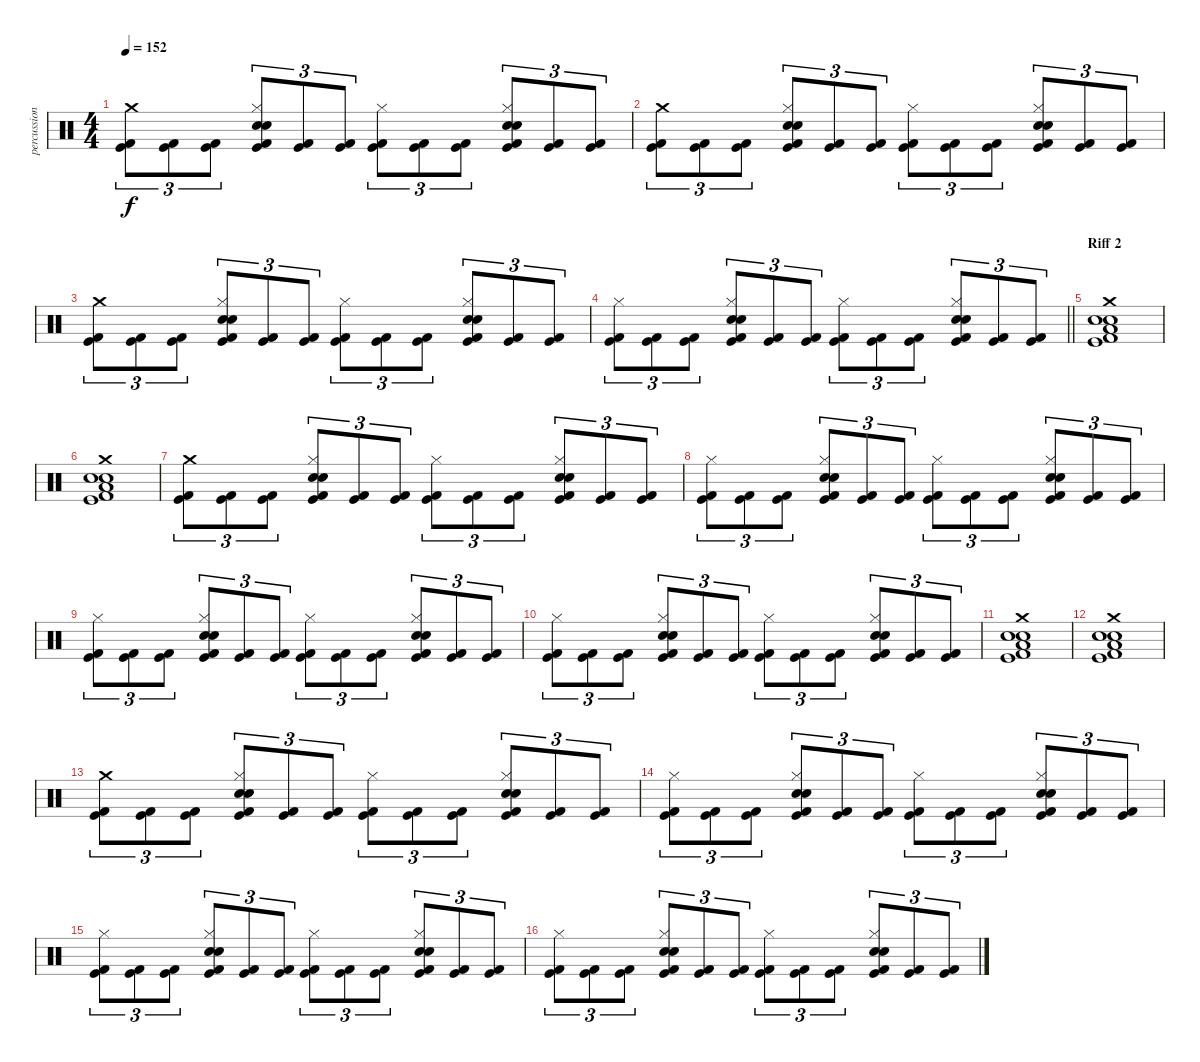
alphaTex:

\track ("percussion" "percussion") {instrument percussion}
\staff {score}
\articulation defaults
\ts (4 4)
\tempo 152
\clef neutral
\ks c
("Crash medium (hit)" "Kick (hit)" "Kick (hit) 2").8{tu (3 2) dy f} ("Kick (hit)" "Kick (hit) 2").8{tu (3 2)} ("Kick (hit)" "Kick (hit) 2").8{tu (3 2)} ("Hi-Hat (closed)" "Electric Snare (hit)" "Snare (hit) 2" "Kick (hit)" "Kick (hit) 2").8{tu (3 2)} ("Kick (hit)" "Kick (hit) 2").8{tu (3 2)} ("Kick (hit)" "Kick (hit) 2").8{tu (3 2)} ("Hi-Hat (closed)" "Kick (hit)" "Kick (hit) 2").8{tu (3 2)} ("Kick (hit)" "Kick (hit) 2").8{tu (3 2)} ("Kick (hit)" "Kick (hit) 2").8{tu (3 2)} ("Hi-Hat (closed)" "Electric Snare (hit)" "Snare (hit) 2" "Kick (hit)" "Kick (hit) 2").8{tu (3 2)} ("Kick (hit)" "Kick (hit) 2").8{tu (3 2)} ("Kick (hit)" "Kick (hit) 2").8{tu (3 2)} |
("Crash medium (hit)" "Kick (hit)" "Kick (hit) 2").8{tu (3 2)} ("Kick (hit)" "Kick (hit) 2").8{tu (3 2)} ("Kick (hit)" "Kick (hit) 2").8{tu (3 2)} ("Hi-Hat (closed)" "Electric Snare (hit)" "Snare (hit) 2" "Kick (hit)" "Kick (hit) 2").8{tu (3 2)} ("Kick (hit)" "Kick (hit) 2").8{tu (3 2)} ("Kick (hit)" "Kick (hit) 2").8{tu (3 2)} ("Hi-Hat (closed)" "Kick (hit)" "Kick (hit) 2").8{tu (3 2)} ("Kick (hit)" "Kick (hit) 2").8{tu (3 2)} ("Kick (hit)" "Kick (hit) 2").8{tu (3 2)} ("Hi-Hat (closed)" "Electric Snare (hit)" "Snare (hit) 2" "Kick (hit)" "Kick (hit) 2").8{tu (3 2)} ("Kick (hit)" "Kick (hit) 2").8{tu (3 2)} ("Kick (hit)" "Kick (hit) 2").8{tu (3 2)} |
("Crash medium (hit)" "Kick (hit)" "Kick (hit) 2").8{tu (3 2)} ("Kick (hit)" "Kick (hit) 2").8{tu (3 2)} ("Kick (hit)" "Kick (hit) 2").8{tu (3 2)} ("Hi-Hat (closed)" "Electric Snare (hit)" "Snare (hit) 2" "Kick (hit)" "Kick (hit) 2").8{tu (3 2)} ("Kick (hit)" "Kick (hit) 2").8{tu (3 2)} ("Kick (hit)" "Kick (hit) 2").8{tu (3 2)} ("Hi-Hat (closed)" "Kick (hit)" "Kick (hit) 2").8{tu (3 2)} ("Kick (hit)" "Kick (hit) 2").8{tu (3 2)} ("Kick (hit)" "Kick (hit) 2").8{tu (3 2)} ("Hi-Hat (closed)" "Electric Snare (hit)" "Snare (hit) 2" "Kick (hit)" "Kick (hit) 2").8{tu (3 2)} ("Kick (hit)" "Kick (hit) 2").8{tu (3 2)} ("Kick (hit)" "Kick (hit) 2").8{tu (3 2)} |
\barLineRight lightlight
("Hi-Hat (closed)" "Kick (hit)" "Kick (hit) 2").8{tu (3 2)} ("Kick (hit)" "Kick (hit) 2").8{tu (3 2)} ("Kick (hit)" "Kick (hit) 2").8{tu (3 2)} ("Hi-Hat (closed)" "Electric Snare (hit)" "Snare (hit) 2" "Kick (hit)" "Kick (hit) 2").8{tu (3 2)} ("Kick (hit)" "Kick (hit) 2").8{tu (3 2)} ("Kick (hit)" "Kick (hit) 2").8{tu (3 2)} ("Hi-Hat (closed)" "Kick (hit)" "Kick (hit) 2").8{tu (3 2)} ("Kick (hit)" "Kick (hit) 2").8{tu (3 2)} ("Kick (hit)" "Kick (hit) 2").8{tu (3 2)} ("Hi-Hat (closed)" "Electric Snare (hit)" "Snare (hit) 2" "Kick (hit)" "Kick (hit) 2").8{tu (3 2)} ("Kick (hit)" "Kick (hit) 2").8{tu (3 2)} ("Kick (hit)" "Kick (hit) 2").8{tu (3 2)} |
\section ("" "Riff 2")
("Crash medium (hit)" "Electric Snare (hit)" "Snare (hit) 2" "Low Tom (hit)" "Kick (hit) 2" "Kick (hit)").1 |
("Crash medium (hit)" "Electric Snare (hit)" "Snare (hit) 2" "Low Tom (hit)" "Kick (hit) 2" "Kick (hit)").1 |
("Crash medium (hit)" "Kick (hit)" "Kick (hit) 2").8{tu (3 2)} ("Kick (hit)" "Kick (hit) 2").8{tu (3 2)} ("Kick (hit)" "Kick (hit) 2").8{tu (3 2)} ("Hi-Hat (closed)" "Electric Snare (hit)" "Snare (hit) 2" "Kick (hit)" "Kick (hit) 2").8{tu (3 2)} ("Kick (hit)" "Kick (hit) 2").8{tu (3 2)} ("Kick (hit)" "Kick (hit) 2").8{tu (3 2)} ("Hi-Hat (closed)" "Kick (hit)" "Kick (hit) 2").8{tu (3 2)} ("Kick (hit)" "Kick (hit) 2").8{tu (3 2)} ("Kick (hit)" "Kick (hit) 2").8{tu (3 2)} ("Hi-Hat (closed)" "Electric Snare (hit)" "Snare (hit) 2" "Kick (hit)" "Kick (hit) 2").8{tu (3 2)} ("Kick (hit)" "Kick (hit) 2").8{tu (3 2)} ("Kick (hit)" "Kick (hit) 2").8{tu (3 2)} |
("Hi-Hat (closed)" "Kick (hit)" "Kick (hit) 2").8{tu (3 2)} ("Kick (hit)" "Kick (hit) 2").8{tu (3 2)} ("Kick (hit)" "Kick (hit) 2").8{tu (3 2)} ("Hi-Hat (closed)" "Electric Snare (hit)" "Snare (hit) 2" "Kick (hit)" "Kick (hit) 2").8{tu (3 2)} ("Kick (hit)" "Kick (hit) 2").8{tu (3 2)} ("Kick (hit)" "Kick (hit) 2").8{tu (3 2)} ("Hi-Hat (closed)" "Kick (hit)" "Kick (hit) 2").8{tu (3 2)} ("Kick (hit)" "Kick (hit) 2").8{tu (3 2)} ("Kick (hit)" "Kick (hit) 2").8{tu (3 2)} ("Hi-Hat (closed)" "Electric Snare (hit)" "Snare (hit) 2" "Kick (hit)" "Kick (hit) 2").8{tu (3 2)} ("Kick (hit)" "Kick (hit) 2").8{tu (3 2)} ("Kick (hit)" "Kick (hit) 2").8{tu (3 2)} |
("Hi-Hat (closed)" "Kick (hit)" "Kick (hit) 2").8{tu (3 2)} ("Kick (hit)" "Kick (hit) 2").8{tu (3 2)} ("Kick (hit)" "Kick (hit) 2").8{tu (3 2)} ("Hi-Hat (closed)" "Electric Snare (hit)" "Snare (hit) 2" "Kick (hit)" "Kick (hit) 2").8{tu (3 2)} ("Kick (hit)" "Kick (hit) 2").8{tu (3 2)} ("Kick (hit)" "Kick (hit) 2").8{tu (3 2)} ("Hi-Hat (closed)" "Kick (hit)" "Kick (hit) 2").8{tu (3 2)} ("Kick (hit)" "Kick (hit) 2").8{tu (3 2)} ("Kick (hit)" "Kick (hit) 2").8{tu (3 2)} ("Hi-Hat (closed)" "Electric Snare (hit)" "Snare (hit) 2" "Kick (hit)" "Kick (hit) 2").8{tu (3 2)} ("Kick (hit)" "Kick (hit) 2").8{tu (3 2)} ("Kick (hit)" "Kick (hit) 2").8{tu (3 2)} |
("Hi-Hat (closed)" "Kick (hit)" "Kick (hit) 2").8{tu (3 2)} ("Kick (hit)" "Kick (hit) 2").8{tu (3 2)} ("Kick (hit)" "Kick (hit) 2").8{tu (3 2)} ("Hi-Hat (closed)" "Electric Snare (hit)" "Snare (hit) 2" "Kick (hit)" "Kick (hit) 2").8{tu (3 2)} ("Kick (hit)" "Kick (hit) 2").8{tu (3 2)} ("Kick (hit)" "Kick (hit) 2").8{tu (3 2)} ("Hi-Hat (closed)" "Kick (hit)" "Kick (hit) 2").8{tu (3 2)} ("Kick (hit)" "Kick (hit) 2").8{tu (3 2)} ("Kick (hit)" "Kick (hit) 2").8{tu (3 2)} ("Hi-Hat (closed)" "Electric Snare (hit)" "Snare (hit) 2" "Kick (hit)" "Kick (hit) 2").8{tu (3 2)} ("Kick (hit)" "Kick (hit) 2").8{tu (3 2)} ("Kick (hit)" "Kick (hit) 2").8{tu (3 2)} |
("Crash medium (hit)" "Electric Snare (hit)" "Snare (hit) 2" "Low Tom (hit)" "Kick (hit) 2" "Kick (hit)").1 |
("Crash medium (hit)" "Electric Snare (hit)" "Snare (hit) 2" "Low Tom (hit)" "Kick (hit) 2" "Kick (hit)").1 |
("Crash medium (hit)" "Kick (hit)" "Kick (hit) 2").8{tu (3 2)} ("Kick (hit)" "Kick (hit) 2").8{tu (3 2)} ("Kick (hit)" "Kick (hit) 2").8{tu (3 2)} ("Hi-Hat (closed)" "Electric Snare (hit)" "Snare (hit) 2" "Kick (hit)" "Kick (hit) 2").8{tu (3 2)} ("Kick (hit)" "Kick (hit) 2").8{tu (3 2)} ("Kick (hit)" "Kick (hit) 2").8{tu (3 2)} ("Hi-Hat (closed)" "Kick (hit)" "Kick (hit) 2").8{tu (3 2)} ("Kick (hit)" "Kick (hit) 2").8{tu (3 2)} ("Kick (hit)" "Kick (hit) 2").8{tu (3 2)} ("Hi-Hat (closed)" "Electric Snare (hit)" "Snare (hit) 2" "Kick (hit)" "Kick (hit) 2").8{tu (3 2)} ("Kick (hit)" "Kick (hit) 2").8{tu (3 2)} ("Kick (hit)" "Kick (hit) 2").8{tu (3 2)} |
("Hi-Hat (closed)" "Kick (hit)" "Kick (hit) 2").8{tu (3 2)} ("Kick (hit)" "Kick (hit) 2").8{tu (3 2)} ("Kick (hit)" "Kick (hit) 2").8{tu (3 2)} ("Hi-Hat (closed)" "Electric Snare (hit)" "Snare (hit) 2" "Kick (hit)" "Kick (hit) 2").8{tu (3 2)} ("Kick (hit)" "Kick (hit) 2").8{tu (3 2)} ("Kick (hit)" "Kick (hit) 2").8{tu (3 2)} ("Hi-Hat (closed)" "Kick (hit)" "Kick (hit) 2").8{tu (3 2)} ("Kick (hit)" "Kick (hit) 2").8{tu (3 2)} ("Kick (hit)" "Kick (hit) 2").8{tu (3 2)} ("Hi-Hat (closed)" "Electric Snare (hit)" "Snare (hit) 2" "Kick (hit)" "Kick (hit) 2").8{tu (3 2)} ("Kick (hit)" "Kick (hit) 2").8{tu (3 2)} ("Kick (hit)" "Kick (hit) 2").8{tu (3 2)} |
("Hi-Hat (closed)" "Kick (hit)" "Kick (hit) 2").8{tu (3 2)} ("Kick (hit)" "Kick (hit) 2").8{tu (3 2)} ("Kick (hit)" "Kick (hit) 2").8{tu (3 2)} ("Hi-Hat (closed)" "Electric Snare (hit)" "Snare (hit) 2" "Kick (hit)" "Kick (hit) 2").8{tu (3 2)} ("Kick (hit)" "Kick (hit) 2").8{tu (3 2)} ("Kick (hit)" "Kick (hit) 2").8{tu (3 2)} ("Hi-Hat (closed)" "Kick (hit)" "Kick (hit) 2").8{tu (3 2)} ("Kick (hit)" "Kick (hit) 2").8{tu (3 2)} ("Kick (hit)" "Kick (hit) 2").8{tu (3 2)} ("Hi-Hat (closed)" "Electric Snare (hit)" "Snare (hit) 2" "Kick (hit)" "Kick (hit) 2").8{tu (3 2)} ("Kick (hit)" "Kick (hit) 2").8{tu (3 2)} ("Kick (hit)" "Kick (hit) 2").8{tu (3 2)} |
("Hi-Hat (closed)" "Kick (hit)" "Kick (hit) 2").8{tu (3 2)} ("Kick (hit)" "Kick (hit) 2").8{tu (3 2)} ("Kick (hit)" "Kick (hit) 2").8{tu (3 2)} ("Hi-Hat (closed)" "Electric Snare (hit)" "Snare (hit) 2" "Kick (hit)" "Kick (hit) 2").8{tu (3 2)} ("Kick (hit)" "Kick (hit) 2").8{tu (3 2)} ("Kick (hit)" "Kick (hit) 2").8{tu (3 2)} ("Hi-Hat (closed)" "Kick (hit)" "Kick (hit) 2").8{tu (3 2)} ("Kick (hit)" "Kick (hit) 2").8{tu (3 2)} ("Kick (hit)" "Kick (hit) 2").8{tu (3 2)} ("Hi-Hat (closed)" "Electric Snare (hit)" "Snare (hit) 2" "Kick (hit)" "Kick (hit) 2").8{tu (3 2)} ("Kick (hit)" "Kick (hit) 2").8{tu (3 2)} ("Kick (hit)" "Kick (hit) 2").8{tu (3 2)}
